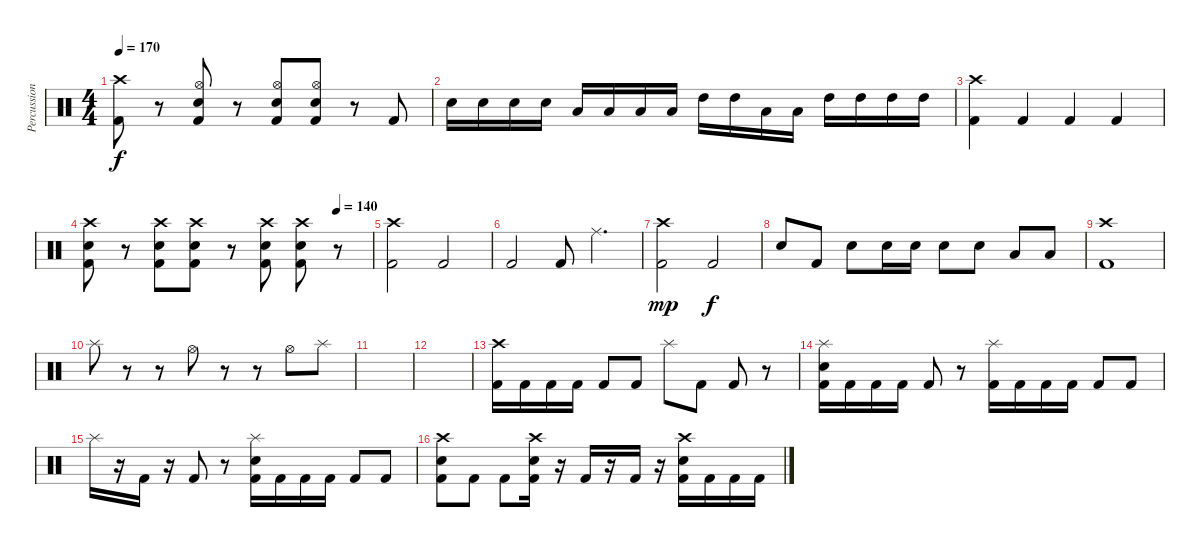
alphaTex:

\track ("Percussion" "Percussion") {instrument percussion}
\staff {score}
\articulation defaults
\ts (4 4)
\tempo 170
\clef neutral
\ks c
("Crash high (hit)" "Kick (hit) 2").8{dy f} r.8 ("Hi-Hat (open)" "Snare (hit) 2" "Kick (hit) 2").8 r.8 ("Hi-Hat (open)" "Snare (hit) 2" "Kick (hit) 2").8 ("Hi-Hat (open)" "Snare (hit) 2" "Kick (hit) 2").8 r.8 "Kick (hit) 2".8 |
"Snare (hit) 2".16 "Snare (hit) 2".16 "Snare (hit) 2".16 "Snare (hit) 2".16 "Low Tom (hit)".16 "Low Tom (hit)".16 "Low Tom (hit)".16 "Low Tom (hit)".16 "High Tom (hit)".16 "High Tom (hit)".16 "Low Tom (hit)".16 "Low Tom (hit)".16 "High Tom (hit)".16 "High Tom (hit)".16 "High Tom (hit)".16 "High Tom (hit)".16 |
("Crash high (hit)" "Kick (hit) 2").4 "Kick (hit) 2".4 "Kick (hit) 2".4 "Kick (hit) 2".4 |
\tempo (140 0.875)
("Crash high (hit)" "Snare (hit) 2" "Kick (hit) 2").8 r.8 ("Crash high (hit)" "Snare (hit) 2" "Kick (hit) 2").8 ("Crash high (hit)" "Snare (hit) 2" "Kick (hit) 2").8 r.8 ("Crash high (hit)" "Snare (hit) 2" "Kick (hit) 2").8 ("Crash high (hit)" "Snare (hit) 2" "Kick (hit) 2").8 r.8 |
("Crash high (hit)" "Kick (hit) 2").2 "Kick (hit) 2".2 |
"Kick (hit) 2".2 "Kick (hit) 2".8 "Ride (middle)".4{d} |
("Crash high (hit)" "Kick (hit) 2").2{dy mp} "Kick (hit) 2".2{dy f} |
"Snare (hit) 2".8 "Kick (hit) 2".8 "Snare (hit) 2".8 "Snare (hit) 2".16 "Snare (hit) 2".16 "Snare (hit) 2".8 "Snare (hit) 2".8 "Low Tom (hit)".8 "Low Tom (hit)".8 |
("Crash high (hit)" "Kick (hit) 2").1 |
"Splash (hit)".8 r.8 r.8 "Hi-Hat (open)".8 r.8 r.8 "Hi-Hat (open)".8 "Splash (hit)".8 |
|
|
("Crash high (hit)" "Kick (hit) 2").16 "Kick (hit) 2".16 "Kick (hit) 2".16 "Kick (hit) 2".16 "Kick (hit) 2".8 "Kick (hit) 2".8 "Splash (hit)".8 "Kick (hit) 2".8 "Kick (hit) 2".8 r.8 |
("Splash (hit)" "Snare (hit) 2" "Kick (hit) 2").16 "Kick (hit) 2".16 "Kick (hit) 2".16 "Kick (hit) 2".16 "Kick (hit) 2".8 r.8 ("Splash (hit)" "Kick (hit) 2").16 "Kick (hit) 2".16 "Kick (hit) 2".16 "Kick (hit) 2".16 "Kick (hit) 2".8 "Kick (hit) 2".8 |
"Splash (hit)".16 r.16 "Kick (hit) 2".16 r.16 "Kick (hit) 2".8 r.8 ("Splash (hit)" "Snare (hit) 2" "Kick (hit) 2").16 "Kick (hit) 2".16 "Kick (hit) 2".16 "Kick (hit) 2".16 "Kick (hit) 2".8 "Kick (hit) 2".8 |
("Crash high (hit)" "Snare (hit) 2" "Kick (hit) 2").8 "Kick (hit) 2".8 "Kick (hit) 2".8 ("Crash high (hit)" "Snare (hit) 2" "Kick (hit) 2").16 r.16 "Kick (hit) 2".16 r.16 "Kick (hit) 2".16 r.16 ("Crash high (hit)" "Snare (hit) 2" "Kick (hit) 2").16 "Kick (hit) 2".16 "Kick (hit) 2".16 "Kick (hit) 2".16
